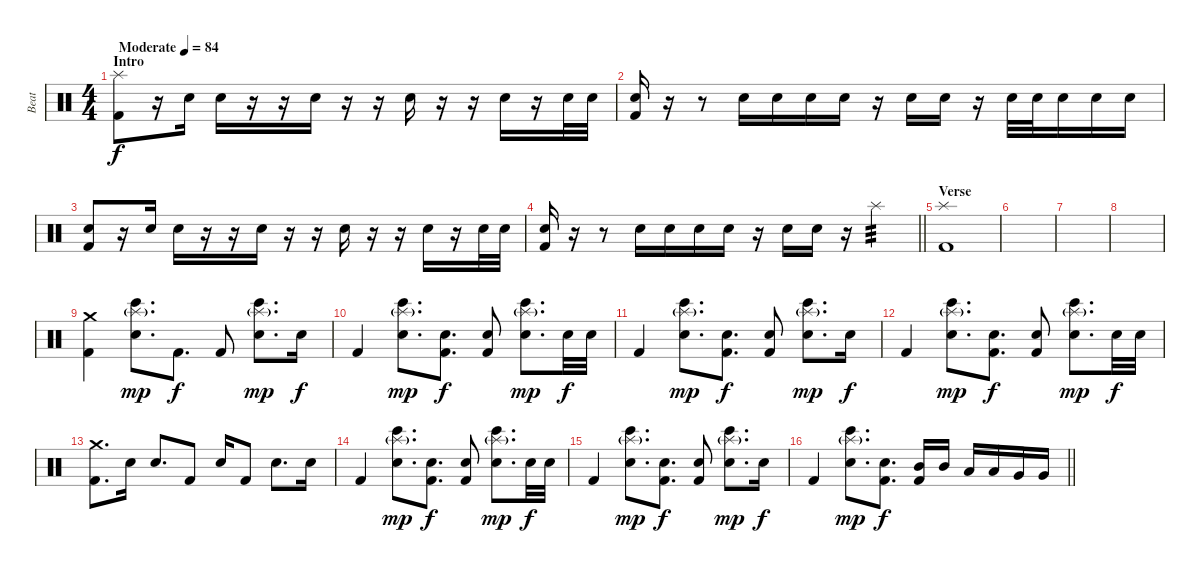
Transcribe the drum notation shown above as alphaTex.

\track ("Beat" "Beat") {instrument percussion}
\staff {score}
\articulation defaults
\ts (4 4)
\section ("" "Intro")
\tempo (84 "Moderate")
\clef neutral
\ks c
("Splash (hit)" "Kick (hit) 2").8{dy f} r.16 "Snare (hit) 2".16 "Snare (hit) 2".16 r.16 r.16 "Snare (hit) 2".16 r.16 r.16 "Snare (hit) 2".16 r.16 r.16 "Snare (hit) 2".16 r.16 "Snare (hit) 2".32 "Snare (hit) 2".32 |
("Snare (hit) 2" "Kick (hit) 2").16 r.16 r.8 "Snare (hit) 2".16 "Snare (hit) 2".16 "Snare (hit) 2".16 "Snare (hit) 2".16 r.16 "Snare (hit) 2".16 "Snare (hit) 2".16 r.16 "Snare (hit) 2".32 "Snare (hit) 2".32 "Snare (hit) 2".16 "Snare (hit) 2".16 "Snare (hit) 2".16 |
("Snare (hit) 2" "Kick (hit) 2").8 r.16 "Snare (hit) 2".16 "Snare (hit) 2".16 r.16 r.16 "Snare (hit) 2".16 r.16 r.16 "Snare (hit) 2".16 r.16 r.16 "Snare (hit) 2".16 r.16 "Snare (hit) 2".32 "Snare (hit) 2".32 |
\barLineRight lightlight
("Snare (hit) 2" "Kick (hit) 2").16 r.16 r.8 "Snare (hit) 2".16 "Snare (hit) 2".16 "Snare (hit) 2".16 "Snare (hit) 2".16 r.16 "Snare (hit) 2".16 "Snare (hit) 2".16 r.16{volume 0} "Splash (hit)".4{tp 3 volume 13} |
\section ("" "Verse")
("Splash (hit)" "Kick (hit) 2").1 |
|
|
|
("Crash medium (hit)" "Kick (hit) 2").4 ("Splash (hit)"{g} "Snare (hit) 2" "Bongo High (hit)").8{d dy mp} "Kick (hit) 2".8{d dy f} "Kick (hit) 2".8 ("Splash (hit)"{g} "Snare (hit) 2" "Bongo High (hit)").8{d dy mp} "Snare (hit) 2".16{dy f} |
"Kick (hit) 2".4 ("Splash (hit)"{g} "Snare (hit) 2" "Bongo High (hit)").8{d dy mp} ("Snare (hit) 2" "Kick (hit) 2").8{d dy f} ("Snare (hit) 2" "Kick (hit) 2").8 ("Splash (hit)"{g} "Snare (hit) 2" "Bongo High (hit)").8{d dy mp} "Snare (hit) 2".32{dy f} "Snare (hit) 2".32 |
"Kick (hit) 2".4 ("Splash (hit)"{g} "Snare (hit) 2" "Bongo High (hit)").8{d dy mp} ("Snare (hit) 2" "Kick (hit) 2").8{d dy f} ("Snare (hit) 2" "Kick (hit) 2").8 ("Splash (hit)"{g} "Snare (hit) 2" "Bongo High (hit)").8{d dy mp} "Snare (hit) 2".16{dy f} |
"Kick (hit) 2".4 ("Splash (hit)"{g} "Snare (hit) 2" "Bongo High (hit)").8{d dy mp} ("Snare (hit) 2" "Kick (hit) 2").8{d dy f} ("Snare (hit) 2" "Kick (hit) 2").8 ("Splash (hit)"{g} "Snare (hit) 2" "Bongo High (hit)").8{d dy mp} "Snare (hit) 2".32{dy f} "Snare (hit) 2".32 |
("Crash medium (hit)" "Kick (hit) 2").8{d} "Snare (hit) 2".16 "Snare (hit) 2".8{d} "Kick (hit) 2".8 "Snare (hit) 2".16 "Kick (hit) 2".8 "Snare (hit) 2".8{d} "Snare (hit) 2".16 |
"Kick (hit) 2".4 ("Splash (hit)"{g} "Snare (hit) 2" "Bongo High (hit)").8{d dy mp} ("Snare (hit) 2" "Kick (hit) 2").8{d dy f} ("Snare (hit) 2" "Kick (hit) 2").8 ("Splash (hit)"{g} "Snare (hit) 2" "Bongo High (hit)").8{d dy mp} "Snare (hit) 2".32{dy f} "Snare (hit) 2".32 |
"Kick (hit) 2".4 ("Splash (hit)"{g} "Snare (hit) 2" "Bongo High (hit)").8{d dy mp} ("Snare (hit) 2" "Kick (hit) 2").8{d dy f} ("Snare (hit) 2" "Kick (hit) 2").8 ("Splash (hit)"{g} "Snare (hit) 2" "Bongo High (hit)").8{d dy mp} "Snare (hit) 2".16{dy f} |
\barLineRight lightlight "Kick (hit) 2".4
("Splash (hit)"{g} "Snare (hit) 2" "Bongo High (hit)").8{d dy mp} ("Snare (hit) 2" "Kick (hit) 2").8{d dy f} ("Mid Tom (hit)" "Kick (hit) 2").16 "Mid Tom (hit)".16 "Low Tom (hit)".16 "Low Tom (hit)".16 "Very Low Tom (hit)".16 "Very Low Tom (hit)".16
